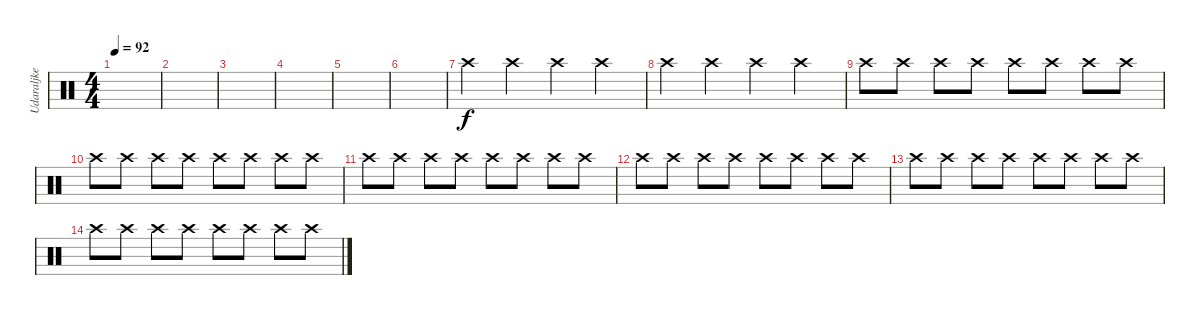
\track ("Udaraljke" "Udaraljke") {instrument percussion}
\staff {score}
\articulation defaults
\ts (4 4)
\tempo 92
\clef neutral
\ks c
|
|
|
|
|
|
"Crash high (hit)".4 "Crash high (hit)".4 "Crash high (hit)".4 "Crash high (hit)".4 |
"Crash high (hit)".4 "Crash high (hit)".4 "Crash high (hit)".4 "Crash high (hit)".4 |
"Crash high (hit)".8 "Crash high (hit)".8 "Crash high (hit)".8 "Crash high (hit)".8 "Crash high (hit)".8 "Crash high (hit)".8 "Crash high (hit)".8 "Crash high (hit)".8 |
"Crash high (hit)".8 "Crash high (hit)".8 "Crash high (hit)".8 "Crash high (hit)".8 "Crash high (hit)".8 "Crash high (hit)".8 "Crash high (hit)".8 "Crash high (hit)".8 |
"Crash high (hit)".8 "Crash high (hit)".8 "Crash high (hit)".8 "Crash high (hit)".8 "Crash high (hit)".8 "Crash high (hit)".8 "Crash high (hit)".8 "Crash high (hit)".8 |
"Crash high (hit)".8 "Crash high (hit)".8 "Crash high (hit)".8 "Crash high (hit)".8 "Crash high (hit)".8 "Crash high (hit)".8 "Crash high (hit)".8 "Crash high (hit)".8 |
"Crash high (hit)".8 "Crash high (hit)".8 "Crash high (hit)".8 "Crash high (hit)".8 "Crash high (hit)".8 "Crash high (hit)".8 "Crash high (hit)".8 "Crash high (hit)".8 |
"Crash high (hit)".8 "Crash high (hit)".8 "Crash high (hit)".8 "Crash high (hit)".8 "Crash high (hit)".8 "Crash high (hit)".8 "Crash high (hit)".8 "Crash high (hit)".8
